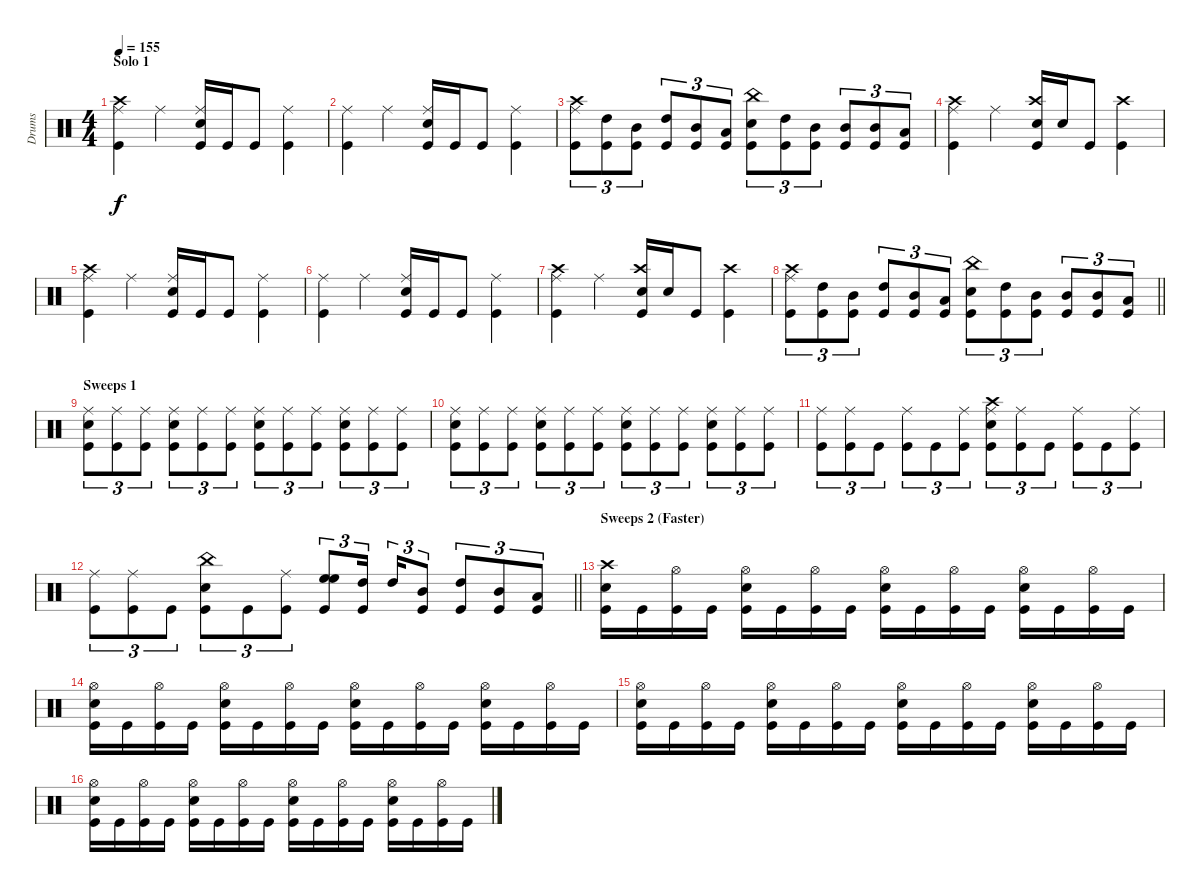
\track ("Drums" "Drums") {instrument percussion}
\staff {score}
\articulation defaults
\ts (4 4)
\section ("" "Solo 1")
\tempo 155
\clef neutral
\ks c
("Kick (hit)" "Ride (middle)" "Crash high (hit)").4{dy f} "Ride (middle)".4 ("Kick (hit)" "Ride (middle)" "Snare (hit) 2").16 "Kick (hit)".16 "Kick (hit)".8 ("Kick (hit)" "Ride (middle)").4 |
("Kick (hit)" "Ride (middle)").4 "Ride (middle)".4 ("Kick (hit)" "Ride (middle)" "Snare (hit) 2").16 "Kick (hit)".16 "Kick (hit)".8 ("Kick (hit)" "Ride (middle)").4 |
("Kick (hit)" "Ride (middle)" "Crash high (hit)").8{tu (3 2)} ("Kick (hit)" "High Tom (hit)").8{tu (3 2)} ("Kick (hit)" "Mid Tom (hit)").8{tu (3 2)} ("Kick (hit)" "High Tom (hit)").8{tu (3 2)} ("Kick (hit)" "Mid Tom (hit)").8{tu (3 2)} ("Kick (hit)" "Low Tom (hit)").8{tu (3 2)} ("Kick (hit)" "China (hit)" "Snare (hit) 2").8{tu (3 2)} ("Kick (hit)" "High Tom (hit)").8{tu (3 2)} ("Kick (hit)" "Mid Tom (hit)").8{tu (3 2)} ("Kick (hit)" "Mid Tom (hit)").8{tu (3 2)} ("Kick (hit)" "Mid Tom (hit)").8{tu (3 2)} ("Kick (hit)" "Low Tom (hit)").8{tu (3 2)} |
("Kick (hit)" "Ride (middle)" "Crash high (hit)").4 "Ride (middle)".4 ("Kick (hit)" "Crash high (hit)" "Snare (hit) 2").16 "Snare (hit) 2".16 "Kick (hit)".8 ("Kick (hit)" "Crash high (hit)").4 |
("Kick (hit)" "Ride (middle)" "Crash high (hit)").4 "Ride (middle)".4 ("Kick (hit)" "Ride (middle)" "Snare (hit) 2").16 "Kick (hit)".16 "Kick (hit)".8 ("Kick (hit)" "Ride (middle)").4 |
("Kick (hit)" "Ride (middle)").4 "Ride (middle)".4 ("Kick (hit)" "Ride (middle)" "Snare (hit) 2").16 "Kick (hit)".16 "Kick (hit)".8 ("Kick (hit)" "Ride (middle)").4 |
("Kick (hit)" "Ride (middle)" "Crash high (hit)").4 "Ride (middle)".4 ("Kick (hit)" "Crash high (hit)" "Snare (hit) 2").16 "Snare (hit) 2".16 "Kick (hit)".8 ("Kick (hit)" "Crash high (hit)").4 |
\barLineRight lightlight
("Kick (hit)" "Ride (middle)" "Crash high (hit)").8{tu (3 2)} ("Kick (hit)" "High Tom (hit)").8{tu (3 2)} ("Kick (hit)" "Mid Tom (hit)").8{tu (3 2)} ("Kick (hit)" "High Tom (hit)").8{tu (3 2)} ("Kick (hit)" "Mid Tom (hit)").8{tu (3 2)} ("Kick (hit)" "Low Tom (hit)").8{tu (3 2)} ("Kick (hit)" "China (hit)" "Snare (hit) 2").8{tu (3 2)} ("Kick (hit)" "High Tom (hit)").8{tu (3 2)} ("Kick (hit)" "Mid Tom (hit)").8{tu (3 2)} ("Kick (hit)" "Mid Tom (hit)").8{tu (3 2)} ("Kick (hit)" "Mid Tom (hit)").8{tu (3 2)} ("Kick (hit)" "Low Tom (hit)").8{tu (3 2)} |
\section ("" "Sweeps 1")
("Kick (hit)" "Ride (middle)" "Snare (hit) 2").8{tu (3 2)} ("Kick (hit)" "Ride (middle)").8{tu (3 2)} ("Kick (hit)" "Ride (middle)").8{tu (3 2)} ("Kick (hit)" "Snare (hit) 2" "Ride (middle)").8{tu (3 2)} ("Kick (hit)" "Ride (middle)").8{tu (3 2)} ("Kick (hit)" "Ride (middle)").8{tu (3 2)} ("Kick (hit)" "Ride (middle)" "Snare (hit) 2").8{tu (3 2)} ("Kick (hit)" "Ride (middle)").8{tu (3 2)} ("Kick (hit)" "Ride (middle)").8{tu (3 2)} ("Kick (hit)" "Ride (middle)" "Snare (hit) 2").8{tu (3 2)} ("Kick (hit)" "Ride (middle)").8{tu (3 2)} ("Kick (hit)" "Ride (middle)").8{tu (3 2)} |
("Kick (hit)" "Ride (middle)" "Snare (hit) 2").8{tu (3 2)} ("Kick (hit)" "Ride (middle)").8{tu (3 2)} ("Kick (hit)" "Ride (middle)").8{tu (3 2)} ("Kick (hit)" "Snare (hit) 2" "Ride (middle)").8{tu (3 2)} ("Kick (hit)" "Ride (middle)").8{tu (3 2)} ("Kick (hit)" "Ride (middle)").8{tu (3 2)} ("Kick (hit)" "Ride (middle)" "Snare (hit) 2").8{tu (3 2)} ("Kick (hit)" "Ride (middle)").8{tu (3 2)} ("Kick (hit)" "Ride (middle)").8{tu (3 2)} ("Kick (hit)" "Ride (middle)" "Snare (hit) 2").8{tu (3 2)} ("Kick (hit)" "Ride (middle)").8{tu (3 2)} ("Kick (hit)" "Ride (middle)").8{tu (3 2)} |
("Kick (hit)" "Ride (middle)").8{tu (3 2)} ("Kick (hit)" "Ride (middle)").8{tu (3 2)} "Kick (hit)".8{tu (3 2)} ("Kick (hit)" "Ride (middle)").8{tu (3 2)} "Kick (hit)".8{tu (3 2)} ("Kick (hit)" "Ride (middle)").8{tu (3 2)} ("Kick (hit)" "Ride (middle)" "Snare (hit) 2" "Crash high (hit)").8{tu (3 2)} ("Kick (hit)" "Ride (middle)").8{tu (3 2)} "Kick (hit)".8{tu (3 2)} ("Kick (hit)" "Ride (middle)").8{tu (3 2)} "Kick (hit)".8{tu (3 2)} ("Kick (hit)" "Ride (middle)").8{tu (3 2)} |
\barLineRight lightlight
("Kick (hit)" "Ride (middle)").8{tu (3 2)} ("Kick (hit)" "Ride (middle)").8{tu (3 2)} "Kick (hit)".8{tu (3 2)} ("Kick (hit)" "China (hit)" "Snare (hit) 2").8{tu (3 2)} "Kick (hit)".8{tu (3 2)} ("Kick (hit)" "Ride (middle)").8{tu (3 2)} ("Kick (hit)" "High Floor Tom (hit)" "High Floor Tom (hit)").8{tu (3 2)} ("Kick (hit)" "High Tom (hit)").16{tu (3 2) beam splitsecondary} "High Tom (hit)".16{tu (3 2)} ("Kick (hit)" "Mid Tom (hit)").8{tu (3 2)} ("Kick (hit)" "High Tom (hit)").8{tu (3 2)} ("Kick (hit)" "Mid Tom (hit)").8{tu (3 2)} ("Kick (hit)" "Low Tom (hit)").8{tu (3 2)} |
\section ("" "Sweeps 2 (Faster)")
("Kick (hit)" "Snare (hit) 2" "Crash high (hit)").16 "Kick (hit)".16 ("Kick (hit)" "Hi-Hat (open)").16 "Kick (hit)".16 ("Kick (hit)" "Snare (hit) 2" "Hi-Hat (open)").16 "Kick (hit)".16 ("Kick (hit)" "Hi-Hat (open)").16 "Kick (hit)".16 ("Kick (hit)" "Snare (hit) 2" "Hi-Hat (open)").16 "Kick (hit)".16 ("Kick (hit)" "Hi-Hat (open)").16 "Kick (hit)".16 ("Kick (hit)" "Snare (hit) 2" "Hi-Hat (open)").16 "Kick (hit)".16 ("Kick (hit)" "Hi-Hat (open)").16 "Kick (hit)".16 |
("Kick (hit)" "Snare (hit) 2" "Hi-Hat (open)").16 "Kick (hit)".16 ("Kick (hit)" "Hi-Hat (open)").16 "Kick (hit)".16 ("Kick (hit)" "Snare (hit) 2" "Hi-Hat (open)").16 "Kick (hit)".16 ("Kick (hit)" "Hi-Hat (open)").16 "Kick (hit)".16 ("Kick (hit)" "Snare (hit) 2" "Hi-Hat (open)").16 "Kick (hit)".16 ("Kick (hit)" "Hi-Hat (open)").16 "Kick (hit)".16 ("Kick (hit)" "Snare (hit) 2" "Hi-Hat (open)").16 "Kick (hit)".16 ("Kick (hit)" "Hi-Hat (open)").16 "Kick (hit)".16 |
("Kick (hit)" "Snare (hit) 2" "Hi-Hat (open)").16 "Kick (hit)".16 ("Kick (hit)" "Hi-Hat (open)").16 "Kick (hit)".16 ("Kick (hit)" "Snare (hit) 2" "Hi-Hat (open)").16 "Kick (hit)".16 ("Kick (hit)" "Hi-Hat (open)").16 "Kick (hit)".16 ("Kick (hit)" "Snare (hit) 2" "Hi-Hat (open)").16 "Kick (hit)".16 ("Kick (hit)" "Hi-Hat (open)").16 "Kick (hit)".16 ("Kick (hit)" "Snare (hit) 2" "Hi-Hat (open)").16 "Kick (hit)".16 ("Kick (hit)" "Hi-Hat (open)").16 "Kick (hit)".16 |
("Kick (hit)" "Snare (hit) 2" "Hi-Hat (open)").16 "Kick (hit)".16 ("Kick (hit)" "Hi-Hat (open)").16 "Kick (hit)".16 ("Kick (hit)" "Snare (hit) 2" "Hi-Hat (open)").16 "Kick (hit)".16 ("Kick (hit)" "Hi-Hat (open)").16 "Kick (hit)".16 ("Kick (hit)" "Snare (hit) 2" "Hi-Hat (open)").16 "Kick (hit)".16 ("Kick (hit)" "Hi-Hat (open)").16 "Kick (hit)".16 ("Kick (hit)" "Snare (hit) 2" "Hi-Hat (open)").16 "Kick (hit)".16 ("Kick (hit)" "Hi-Hat (open)").16 "Kick (hit)".16
